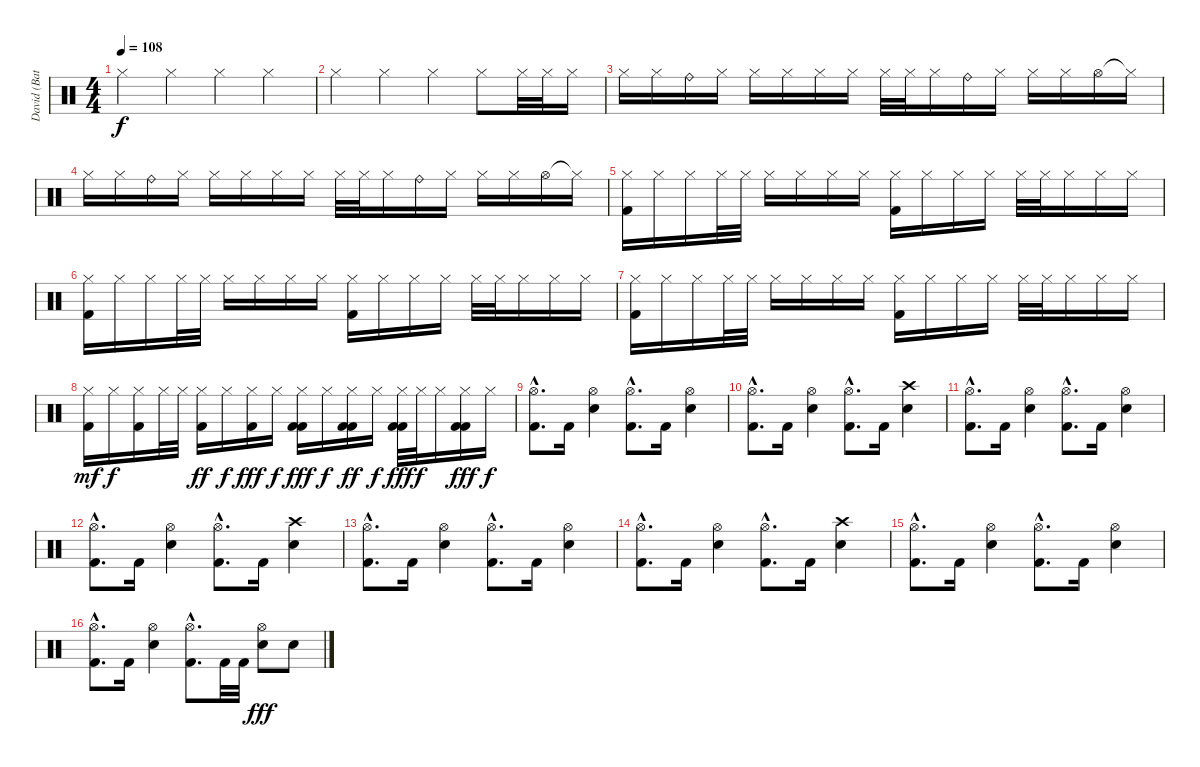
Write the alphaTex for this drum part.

\track ("David (Batterie)" "David (Bat") {instrument percussion}
\staff {score}
\articulation defaults
\ts (4 4)
\tempo 108
\clef neutral
\ks c "Hi-Hat (closed)".4{dy f} "Hi-Hat (closed)".4 "Hi-Hat (closed)".4 "Hi-Hat (closed)".4
|
"Hi-Hat (closed)".4 "Hi-Hat (closed)".4 "Hi-Hat (closed)".4 "Hi-Hat (closed)".8 "Hi-Hat (closed)".32 "Hi-Hat (closed)".32 "Hi-Hat (closed)".16 |
"Hi-Hat (closed)".16 "Hi-Hat (closed)".16 "Ride (bell)".16 "Hi-Hat (closed)".16 "Hi-Hat (closed)".16 "Hi-Hat (closed)".16 "Hi-Hat (closed)".16 "Hi-Hat (closed)".16 "Hi-Hat (closed)".32 "Hi-Hat (closed)".32 "Hi-Hat (closed)".16 "Ride (bell)".16 "Hi-Hat (closed)".16 "Hi-Hat (closed)".16 "Hi-Hat (closed)".16 "Hi-Hat (open)".16 "Hi-Hat (closed)"{t}.16 |
"Hi-Hat (closed)".16 "Hi-Hat (closed)".16 "Ride (bell)".16 "Hi-Hat (closed)".16 "Hi-Hat (closed)".16 "Hi-Hat (closed)".16 "Hi-Hat (closed)".16 "Hi-Hat (closed)".16 "Hi-Hat (closed)".32 "Hi-Hat (closed)".32 "Hi-Hat (closed)".16 "Ride (bell)".16 "Hi-Hat (closed)".16 "Hi-Hat (closed)".16 "Hi-Hat (closed)".16 "Hi-Hat (open)".16 "Hi-Hat (closed)"{t}.16 |
("Hi-Hat (closed)" "Kick (hit) 2").16 "Hi-Hat (closed)".16 "Hi-Hat (closed)".16 "Hi-Hat (closed)".32 "Hi-Hat (closed)".32 "Hi-Hat (closed)".16 "Hi-Hat (closed)".16 "Hi-Hat (closed)".16 "Hi-Hat (closed)".16 ("Hi-Hat (closed)" "Kick (hit) 2").16 "Hi-Hat (closed)".16 "Hi-Hat (closed)".16 "Hi-Hat (closed)".16 "Hi-Hat (closed)".32 "Hi-Hat (closed)".32 "Hi-Hat (closed)".16 "Hi-Hat (closed)".16 "Hi-Hat (closed)".16 |
("Hi-Hat (closed)" "Kick (hit) 2").16 "Hi-Hat (closed)".16 "Hi-Hat (closed)".16 "Hi-Hat (closed)".32 "Hi-Hat (closed)".32 "Hi-Hat (closed)".16 "Hi-Hat (closed)".16 "Hi-Hat (closed)".16 "Hi-Hat (closed)".16 ("Hi-Hat (closed)" "Kick (hit) 2").16 "Hi-Hat (closed)".16 "Hi-Hat (closed)".16 "Hi-Hat (closed)".16 "Hi-Hat (closed)".32 "Hi-Hat (closed)".32 "Hi-Hat (closed)".16 "Hi-Hat (closed)".16 "Hi-Hat (closed)".16 |
("Hi-Hat (closed)" "Kick (hit) 2").16 "Hi-Hat (closed)".16 "Hi-Hat (closed)".16 "Hi-Hat (closed)".32 "Hi-Hat (closed)".32 "Hi-Hat (closed)".16 "Hi-Hat (closed)".16 "Hi-Hat (closed)".16 "Hi-Hat (closed)".16 ("Hi-Hat (closed)" "Kick (hit) 2").16 "Hi-Hat (closed)".16 "Hi-Hat (closed)".16 "Hi-Hat (closed)".16 "Hi-Hat (closed)".32 "Hi-Hat (closed)".32 "Hi-Hat (closed)".16 "Hi-Hat (closed)".16 "Hi-Hat (closed)".16 |
("Hi-Hat (closed)" "Kick (hit) 2").16{dy mf} "Hi-Hat (closed)".16{dy f} ("Hi-Hat (closed)" "Kick (hit) 2").16 "Hi-Hat (closed)".32 "Hi-Hat (closed)".32 ("Hi-Hat (closed)" "Kick (hit) 2").16{dy ff} "Hi-Hat (closed)".16{dy f} ("Hi-Hat (closed)" "Kick (hit) 2").16{dy fff} "Hi-Hat (closed)".16{dy f} ("Hi-Hat (closed)" "Kick (hit) 2" "Kick (hit) 2").16{dy fff} "Hi-Hat (closed)".16{dy f} ("Hi-Hat (closed)" "Kick (hit) 2" "Kick (hit) 2").16{dy ff} "Hi-Hat (closed)".16{dy f} ("Hi-Hat (closed)" "Kick (hit) 2" "Kick (hit) 2").32{dy fff} "Hi-Hat (closed)".32{dy f} "Hi-Hat (closed)".16 ("Hi-Hat (closed)" "Kick (hit) 2" "Kick (hit) 2").16{dy fff} "Hi-Hat (closed)".16{dy f} |
("Hi-Hat (open)"{hac} "Kick (hit) 2"{hac}).8{d} "Kick (hit) 2".16 ("Hi-Hat (open)" "Electric Snare (hit)").4 ("Hi-Hat (open)"{hac} "Kick (hit) 2"{hac}).8{d} "Kick (hit) 2".16 ("Hi-Hat (open)" "Electric Snare (hit)").4 |
("Hi-Hat (open)"{hac} "Kick (hit) 2"{hac}).8{d} "Kick (hit) 2".16 ("Hi-Hat (open)" "Electric Snare (hit)").4 ("Hi-Hat (open)"{hac} "Kick (hit) 2"{hac}).8{d} "Kick (hit) 2".16 ("Crash high (hit)" "Electric Snare (hit)").4 |
("Hi-Hat (open)"{hac} "Kick (hit) 2"{hac}).8{d} "Kick (hit) 2".16 ("Hi-Hat (open)" "Electric Snare (hit)").4 ("Hi-Hat (open)"{hac} "Kick (hit) 2"{hac}).8{d} "Kick (hit) 2".16 ("Hi-Hat (open)" "Electric Snare (hit)").4 |
("Hi-Hat (open)"{hac} "Kick (hit) 2"{hac}).8{d} "Kick (hit) 2".16 ("Hi-Hat (open)" "Electric Snare (hit)").4 ("Hi-Hat (open)"{hac} "Kick (hit) 2"{hac}).8{d} "Kick (hit) 2".16 ("Crash high (hit)" "Electric Snare (hit)").4 |
("Hi-Hat (open)"{hac} "Kick (hit) 2"{hac}).8{d} "Kick (hit) 2".16 ("Hi-Hat (open)" "Electric Snare (hit)").4 ("Hi-Hat (open)"{hac} "Kick (hit) 2"{hac}).8{d} "Kick (hit) 2".16 ("Hi-Hat (open)" "Electric Snare (hit)").4 |
("Hi-Hat (open)"{hac} "Kick (hit) 2"{hac}).8{d} "Kick (hit) 2".16 ("Hi-Hat (open)" "Electric Snare (hit)").4 ("Hi-Hat (open)"{hac} "Kick (hit) 2"{hac}).8{d} "Kick (hit) 2".16 ("Crash high (hit)" "Electric Snare (hit)").4 |
("Hi-Hat (open)"{hac} "Kick (hit) 2"{hac}).8{d} "Kick (hit) 2".16 ("Hi-Hat (open)" "Electric Snare (hit)").4 ("Hi-Hat (open)"{hac} "Kick (hit) 2"{hac}).8{d} "Kick (hit) 2".16 ("Hi-Hat (open)" "Electric Snare (hit)").4 |
("Hi-Hat (open)"{hac} "Kick (hit) 2"{hac}).8{d} "Kick (hit) 2".16 ("Hi-Hat (open)" "Electric Snare (hit)").4 ("Hi-Hat (open)"{hac} "Kick (hit) 2"{hac}).8{d} "Kick (hit) 2".32 "Kick (hit) 2".32 ("Hi-Hat (open)" "Electric Snare (hit)").8{dy fff} "Electric Snare (hit)".8
